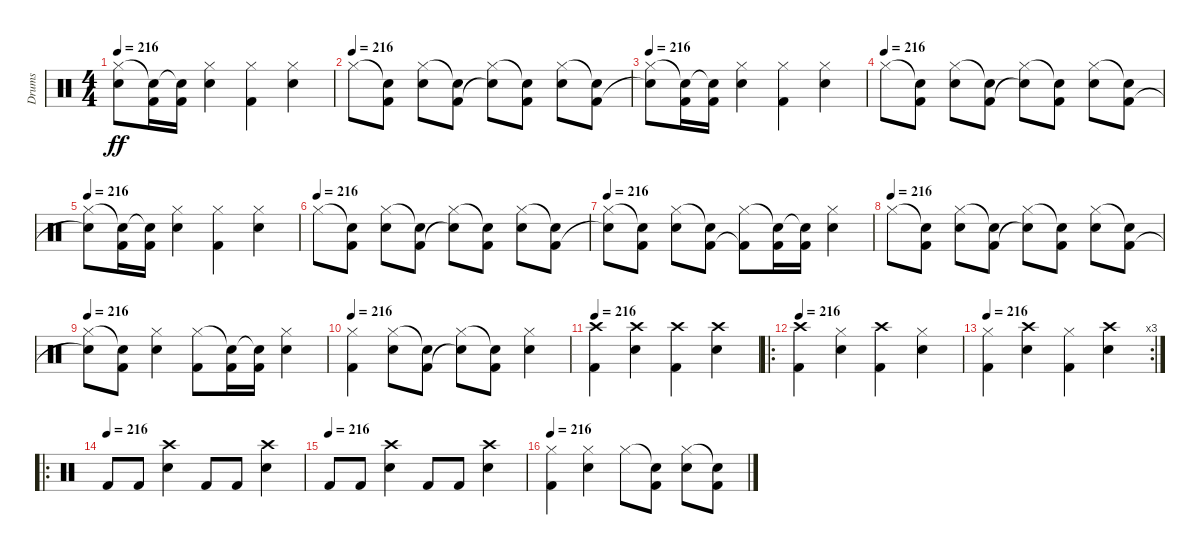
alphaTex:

\track ("Drums" "Drums") {instrument percussion}
\staff {score}
\articulation defaults
\ts (4 4)
\tempo 216
\clef neutral
\ks c
("Hi-Hat (closed)" "Snare (hit)"{t}).8{dy ff} ("Snare (hit)"{t} "Kick (hit) 2").16 ("Snare (hit)"{t} "Kick (hit) 2").16 ("Hi-Hat (closed)" "Snare (hit) 2").4 ("Hi-Hat (closed)" "Kick (hit) 2").4 ("Hi-Hat (closed)" "Snare (hit) 2").4 |
\tempo (216)
"Hi-Hat (closed)".8 ("Snare (hit)"{t} "Kick (hit) 2").8 ("Hi-Hat (closed)" "Snare (hit) 2").8 ("Snare (hit)"{t} "Kick (hit) 2").8 ("Hi-Hat (closed)" "Snare (hit)"{t}).8 ("Snare (hit)"{t} "Kick (hit) 2").8 ("Hi-Hat (closed)" "Snare (hit) 2").8 ("Snare (hit)"{t} "Kick (hit) 2").8 |
\tempo 216
("Hi-Hat (closed)" "Snare (hit)"{t}).8 ("Snare (hit)"{t} "Kick (hit) 2").16 ("Snare (hit)"{t} "Kick (hit) 2").16 ("Hi-Hat (closed)" "Snare (hit) 2").4 ("Hi-Hat (closed)" "Kick (hit) 2").4 ("Hi-Hat (closed)" "Snare (hit) 2").4 |
\tempo (216)
"Hi-Hat (closed)".8 ("Snare (hit)"{t} "Kick (hit) 2").8 ("Hi-Hat (closed)" "Snare (hit) 2").8 ("Snare (hit)"{t} "Kick (hit) 2").8 ("Hi-Hat (closed)" "Snare (hit)"{t}).8 ("Snare (hit)"{t} "Kick (hit) 2").8 ("Hi-Hat (closed)" "Snare (hit) 2").8 ("Snare (hit)"{t} "Kick (hit) 2").8 |
\tempo 216
("Hi-Hat (closed)" "Snare (hit)"{t}).8 ("Snare (hit)"{t} "Kick (hit) 2").16 ("Snare (hit)"{t} "Kick (hit) 2").16 ("Hi-Hat (closed)" "Snare (hit) 2").4 ("Hi-Hat (closed)" "Kick (hit) 2").4 ("Hi-Hat (closed)" "Snare (hit) 2").4 |
\tempo (216)
"Hi-Hat (closed)".8 ("Snare (hit)"{t} "Kick (hit) 2").8 ("Hi-Hat (closed)" "Snare (hit) 2").8 ("Snare (hit)"{t} "Kick (hit) 2").8 ("Hi-Hat (closed)" "Snare (hit)"{t}).8 ("Snare (hit)"{t} "Kick (hit) 2").8 ("Hi-Hat (closed)" "Snare (hit) 2").8 ("Snare (hit)"{t} "Kick (hit) 2").8 |
\tempo 216
("Hi-Hat (closed)" "Snare (hit)"{t}).8 ("Snare (hit)"{t} "Kick (hit) 2").8 ("Hi-Hat (closed)" "Snare (hit) 2").8 ("Snare (hit)"{t} "Kick (hit) 2").8 ("Hi-Hat (closed)" "Kick (hit) 2"{t}).8 ("Snare (hit)"{t} "Kick (hit) 2").16 ("Snare (hit)"{t} "Kick (hit) 2").16 ("Hi-Hat (closed)" "Snare (hit) 2").4 |
\tempo (216)
"Hi-Hat (closed)".8 ("Snare (hit)"{t} "Kick (hit) 2").8 ("Hi-Hat (closed)" "Snare (hit) 2").8 ("Snare (hit)"{t} "Kick (hit) 2").8 ("Hi-Hat (closed)" "Snare (hit)"{t}).8 ("Snare (hit)"{t} "Kick (hit) 2").8 ("Hi-Hat (closed)" "Snare (hit) 2").8 ("Snare (hit)"{t} "Kick (hit) 2").8 |
\tempo 216
("Hi-Hat (closed)" "Snare (hit)"{t}).8 ("Snare (hit)"{t} "Kick (hit) 2").8 ("Hi-Hat (closed)" "Snare (hit) 2").4 ("Hi-Hat (closed)" "Kick (hit) 2").8 ("Snare (hit)"{t} "Kick (hit) 2").16 ("Snare (hit)"{t} "Kick (hit) 2").16 ("Hi-Hat (closed)" "Snare (hit) 2").4 |
\tempo 216
("Hi-Hat (closed)" "Kick (hit) 2").4 ("Hi-Hat (closed)" "Snare (hit) 2").8 ("Snare (hit)"{t} "Kick (hit) 2").8 ("Hi-Hat (closed)" "Snare (hit)"{t}).8 ("Snare (hit)"{t} "Kick (hit) 2").8 ("Hi-Hat (closed)" "Snare (hit) 2").4 |
\tempo 216
("Crash high (hit)" "Kick (hit) 2").4 ("Crash high (hit)" "Snare (hit) 2").4 ("Crash high (hit)" "Kick (hit) 2").4 ("Crash high (hit)" "Snare (hit) 2").4 |
\ro
\tempo 216
("Crash high (hit)" "Kick (hit) 2").4 ("Hi-Hat (closed)" "Snare (hit) 2").4 ("Crash high (hit)" "Kick (hit) 2").4 ("Hi-Hat (closed)" "Snare (hit) 2").4 |
\rc 3
\tempo 216
("Hi-Hat (closed)" "Kick (hit) 2").4 ("Crash high (hit)" "Snare (hit) 2").4 ("Hi-Hat (closed)" "Kick (hit) 2").4 ("Crash high (hit)" "Snare (hit) 2").4 |
\ro
\tempo (216)
"Kick (hit) 2".8 "Kick (hit) 2".8 ("Crash high (hit)" "Snare (hit) 2").4 "Kick (hit) 2".8 "Kick (hit) 2".8 ("Crash high (hit)" "Snare (hit) 2").4 |
\tempo (216)
"Kick (hit) 2".8 "Kick (hit) 2".8 ("Crash high (hit)" "Snare (hit) 2").4 "Kick (hit) 2".8 "Kick (hit) 2".8 ("Crash high (hit)" "Snare (hit) 2").4 |
\tempo 216
("Hi-Hat (closed)" "Kick (hit) 2").4 ("Hi-Hat (closed)" "Snare (hit) 2").4 "Hi-Hat (closed)".8 ("Snare (hit)"{t} "Kick (hit) 2").8 ("Hi-Hat (closed)" "Snare (hit) 2").8 ("Snare (hit)"{t} "Kick (hit) 2").8
